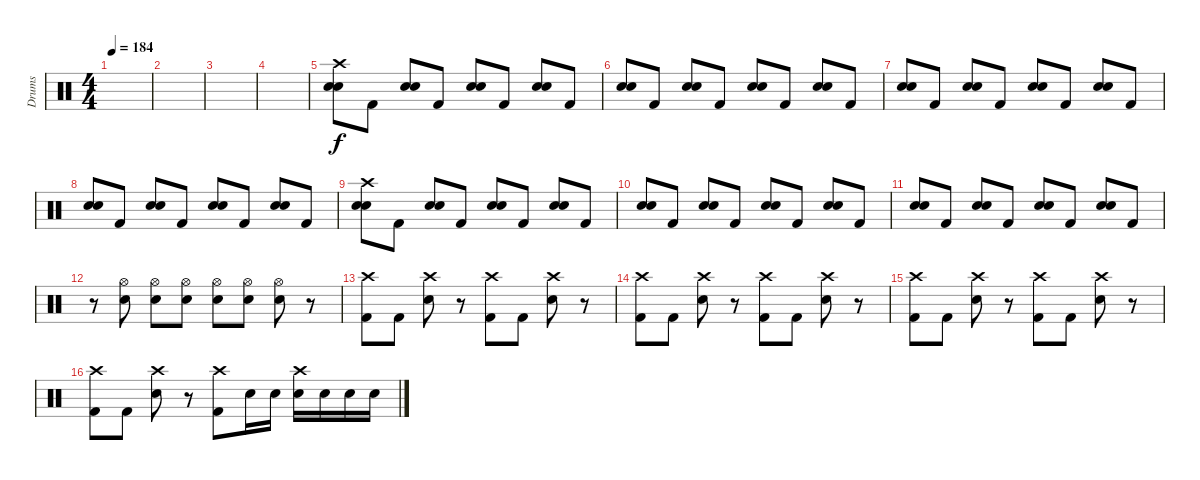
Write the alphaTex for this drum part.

\track ("Drums" "Drums") {instrument percussion}
\staff {score}
\articulation defaults
\ts (4 4)
\tempo 184
\clef neutral
\ks c
|
|
|
|
("Crash high (hit)" "Electric Snare (hit)" "Snare (hit) 2").8 "Kick (hit) 2".8 ("Electric Snare (hit)" "Snare (hit) 2").8 "Kick (hit) 2".8 ("Electric Snare (hit)" "Snare (hit) 2").8 "Kick (hit) 2".8 ("Electric Snare (hit)" "Snare (hit) 2").8 "Kick (hit) 2".8 |
("Electric Snare (hit)" "Snare (hit) 2").8 "Kick (hit) 2".8 ("Electric Snare (hit)" "Snare (hit) 2").8 "Kick (hit) 2".8 ("Electric Snare (hit)" "Snare (hit) 2").8 "Kick (hit) 2".8 ("Electric Snare (hit)" "Snare (hit) 2").8 "Kick (hit) 2".8 |
("Electric Snare (hit)" "Snare (hit) 2").8 "Kick (hit) 2".8 ("Electric Snare (hit)" "Snare (hit) 2").8 "Kick (hit) 2".8 ("Electric Snare (hit)" "Snare (hit) 2").8 "Kick (hit) 2".8 ("Electric Snare (hit)" "Snare (hit) 2").8 "Kick (hit) 2".8 |
("Electric Snare (hit)" "Snare (hit) 2").8 "Kick (hit) 2".8 ("Electric Snare (hit)" "Snare (hit) 2").8 "Kick (hit) 2".8 ("Electric Snare (hit)" "Snare (hit) 2").8 "Kick (hit) 2".8 ("Electric Snare (hit)" "Snare (hit) 2").8 "Kick (hit) 2".8 |
("Crash high (hit)" "Electric Snare (hit)" "Snare (hit) 2").8 "Kick (hit) 2".8 ("Electric Snare (hit)" "Snare (hit) 2").8 "Kick (hit) 2".8 ("Electric Snare (hit)" "Snare (hit) 2").8 "Kick (hit) 2".8 ("Electric Snare (hit)" "Snare (hit) 2").8 "Kick (hit) 2".8 |
("Electric Snare (hit)" "Snare (hit) 2").8 "Kick (hit) 2".8 ("Electric Snare (hit)" "Snare (hit) 2").8 "Kick (hit) 2".8 ("Electric Snare (hit)" "Snare (hit) 2").8 "Kick (hit) 2".8 ("Electric Snare (hit)" "Snare (hit) 2").8 "Kick (hit) 2".8 |
("Electric Snare (hit)" "Snare (hit) 2").8 "Kick (hit) 2".8 ("Electric Snare (hit)" "Snare (hit) 2").8 "Kick (hit) 2".8 ("Electric Snare (hit)" "Snare (hit) 2").8 "Kick (hit) 2".8 ("Electric Snare (hit)" "Snare (hit) 2").8 "Kick (hit) 2".8 |
r.8 ("Hi-Hat (open)" "Snare (hit) 2").8 ("Hi-Hat (open)" "Snare (hit) 2").8 ("Hi-Hat (open)" "Snare (hit) 2").8 ("Hi-Hat (open)" "Snare (hit) 2").8 ("Hi-Hat (open)" "Snare (hit) 2").8 ("Hi-Hat (open)" "Snare (hit) 2").8 r.8 |
("Crash high (hit)" "Kick (hit) 2").8 "Kick (hit) 2".8 ("Crash high (hit)" "Snare (hit) 2").8 r.8 ("Crash high (hit)" "Kick (hit) 2").8 "Kick (hit) 2".8 ("Crash high (hit)" "Snare (hit) 2").8 r.8 |
("Crash high (hit)" "Kick (hit) 2").8 "Kick (hit) 2".8 ("Crash high (hit)" "Snare (hit) 2").8 r.8 ("Crash high (hit)" "Kick (hit) 2").8 "Kick (hit) 2".8 ("Crash high (hit)" "Snare (hit) 2").8 r.8 |
("Crash high (hit)" "Kick (hit) 2").8 "Kick (hit) 2".8 ("Crash high (hit)" "Snare (hit) 2").8 r.8 ("Crash high (hit)" "Kick (hit) 2").8 "Kick (hit) 2".8 ("Crash high (hit)" "Snare (hit) 2").8 r.8 |
("Crash high (hit)" "Kick (hit) 2").8 "Kick (hit) 2".8 ("Crash high (hit)" "Snare (hit) 2").8 r.8 ("Crash high (hit)" "Kick (hit) 2").8 "Snare (hit) 2".16 "Snare (hit) 2".16 ("Crash high (hit)" "Snare (hit) 2").16 "Snare (hit) 2".16 "Snare (hit) 2".16 "Snare (hit) 2".16
